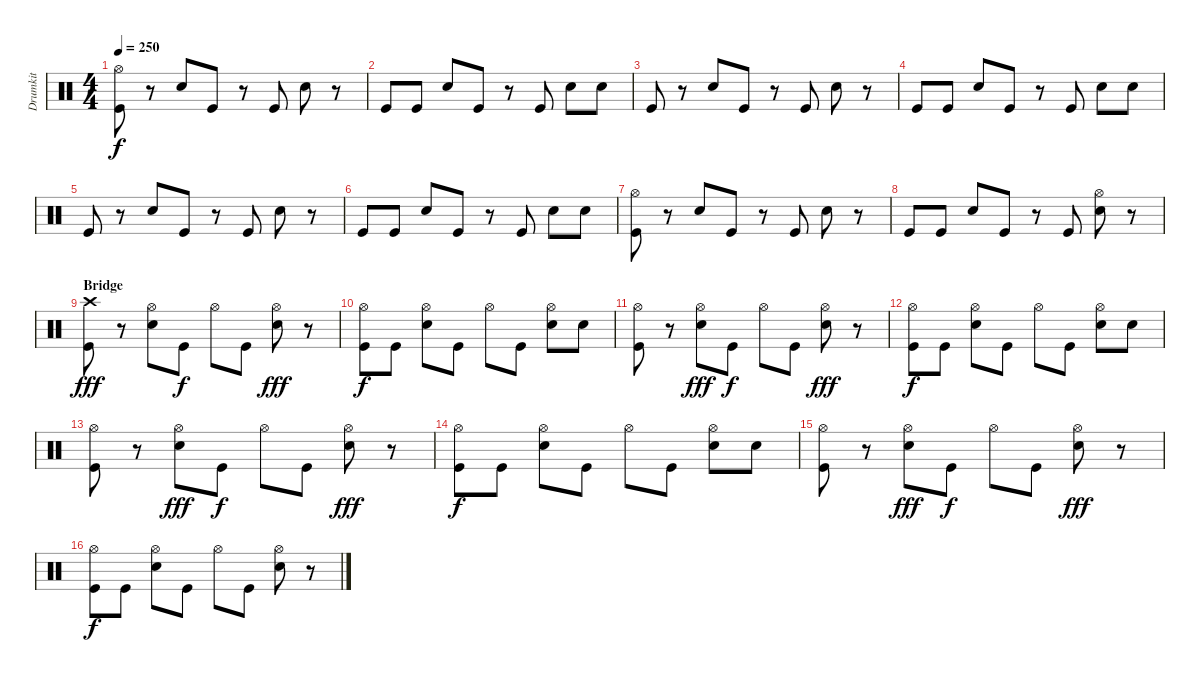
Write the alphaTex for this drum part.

\track ("Drumkit" "Drumkit") {instrument percussion}
\staff {score}
\articulation defaults
\ts (4 4)
\tempo 250
\clef neutral
\ks c
("Hi-Hat (open)" "Kick (hit)").8{dy f} r.8 "Snare (hit) 2".8 "Kick (hit)".8 r.8 "Kick (hit)".8 "Snare (hit) 2".8 r.8 |
"Kick (hit)".8 "Kick (hit)".8 "Snare (hit) 2".8 "Kick (hit)".8 r.8 "Kick (hit)".8 "Snare (hit) 2".8 "Snare (hit) 2".8 |
"Kick (hit)".8 r.8 "Snare (hit) 2".8 "Kick (hit)".8 r.8 "Kick (hit)".8 "Snare (hit) 2".8 r.8 |
"Kick (hit)".8 "Kick (hit)".8 "Snare (hit) 2".8 "Kick (hit)".8 r.8 "Kick (hit)".8 "Snare (hit) 2".8 "Snare (hit) 2".8 |
"Kick (hit)".8 r.8 "Snare (hit) 2".8 "Kick (hit)".8 r.8 "Kick (hit)".8 "Snare (hit) 2".8 r.8 |
"Kick (hit)".8 "Kick (hit)".8 "Snare (hit) 2".8 "Kick (hit)".8 r.8 "Kick (hit)".8 "Snare (hit) 2".8 "Snare (hit) 2".8 |
("Hi-Hat (open)" "Kick (hit)").8 r.8 "Snare (hit) 2".8 "Kick (hit)".8 r.8 "Kick (hit)".8 "Snare (hit) 2".8 r.8 |
"Kick (hit)".8 "Kick (hit)".8 "Snare (hit) 2".8 "Kick (hit)".8 r.8 "Kick (hit)".8 ("Hi-Hat (open)" "Snare (hit) 2").8 r.8 |
\section ("" "Bridge")
("Crash high (hit)" "Kick (hit)").8{dy fff} r.8 ("Hi-Hat (open)" "Snare (hit) 2").8 "Kick (hit)".8{dy f} "Hi-Hat (open)".8 "Kick (hit)".8 ("Hi-Hat (open)" "Snare (hit) 2").8{dy fff} r.8 |
("Hi-Hat (open)" "Kick (hit)").8{dy f} "Kick (hit)".8 ("Hi-Hat (open)" "Snare (hit) 2").8 "Kick (hit)".8 "Hi-Hat (open)".8 "Kick (hit)".8 ("Hi-Hat (open)" "Snare (hit) 2").8 "Snare (hit) 2".8 |
("Hi-Hat (open)" "Kick (hit)").8 r.8 ("Hi-Hat (open)" "Snare (hit) 2").8{dy fff} "Kick (hit)".8{dy f} "Hi-Hat (open)".8 "Kick (hit)".8 ("Hi-Hat (open)" "Snare (hit) 2").8{dy fff} r.8 |
("Hi-Hat (open)" "Kick (hit)").8{dy f} "Kick (hit)".8 ("Hi-Hat (open)" "Snare (hit) 2").8 "Kick (hit)".8 "Hi-Hat (open)".8 "Kick (hit)".8 ("Hi-Hat (open)" "Snare (hit) 2").8 "Snare (hit) 2".8 |
("Hi-Hat (open)" "Kick (hit)").8 r.8 ("Hi-Hat (open)" "Snare (hit) 2").8{dy fff} "Kick (hit)".8{dy f} "Hi-Hat (open)".8 "Kick (hit)".8 ("Hi-Hat (open)" "Snare (hit) 2").8{dy fff} r.8 |
("Hi-Hat (open)" "Kick (hit)").8{dy f} "Kick (hit)".8 ("Hi-Hat (open)" "Snare (hit) 2").8 "Kick (hit)".8 "Hi-Hat (open)".8 "Kick (hit)".8 ("Hi-Hat (open)" "Snare (hit) 2").8 "Snare (hit) 2".8 |
("Hi-Hat (open)" "Kick (hit)").8 r.8 ("Hi-Hat (open)" "Snare (hit) 2").8{dy fff} "Kick (hit)".8{dy f} "Hi-Hat (open)".8 "Kick (hit)".8 ("Hi-Hat (open)" "Snare (hit) 2").8{dy fff} r.8 |
("Hi-Hat (open)" "Kick (hit)").8{dy f} "Kick (hit)".8 ("Hi-Hat (open)" "Snare (hit) 2").8 "Kick (hit)".8 "Hi-Hat (open)".8 "Kick (hit)".8 ("Hi-Hat (open)" "Snare (hit) 2").8 r.8
